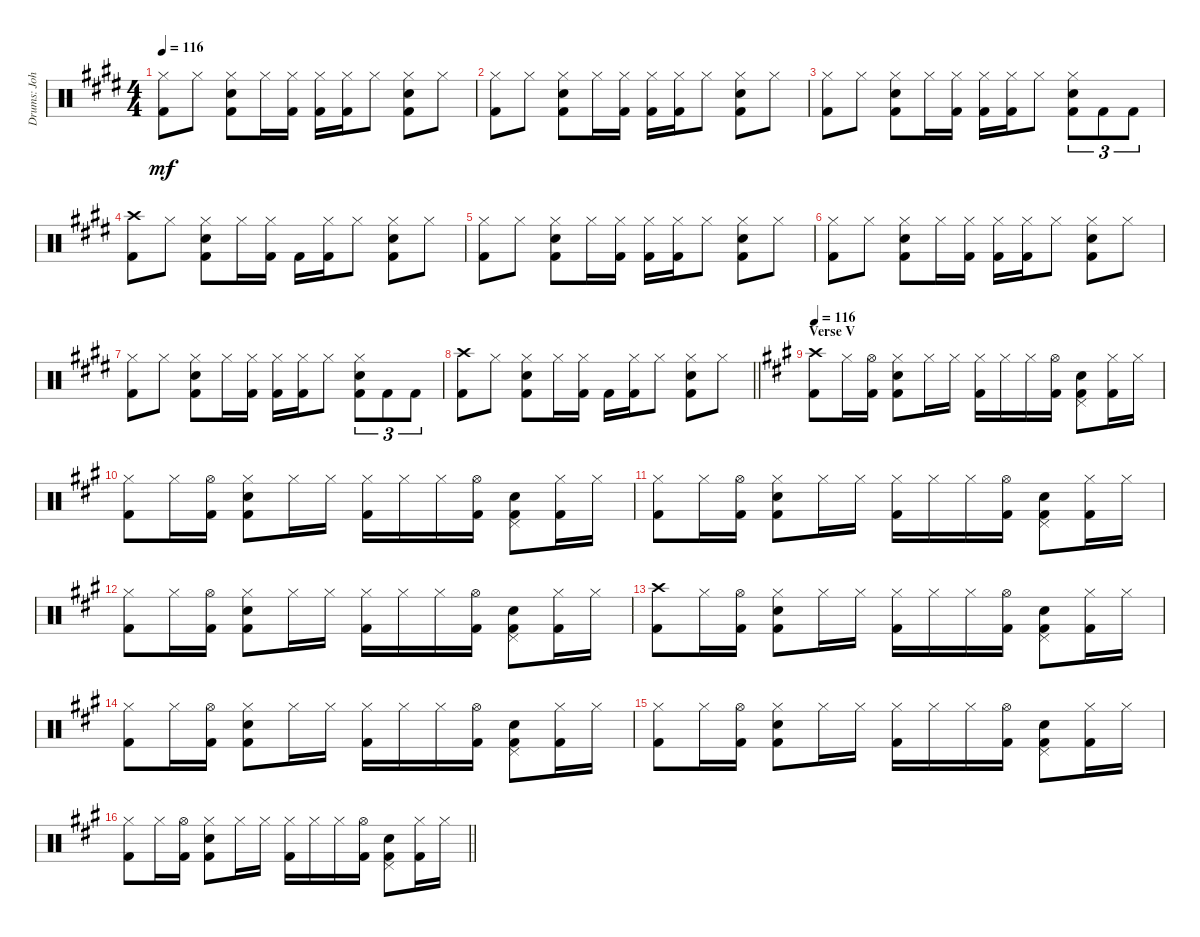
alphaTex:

\track ("Drums: John" "Drums: Joh") {instrument percussion}
\staff {score}
\articulation defaults
\ts (4 4)
\tempo 116
\clef neutral
\ks e
("Hi-Hat (closed)" "Kick (hit) 2").8{dy mf} "Hi-Hat (closed)".8 ("Hi-Hat (closed)" "Electric Snare (hit)" "Kick (hit) 2").8 "Hi-Hat (closed)".16 ("Hi-Hat (closed)" "Kick (hit) 2").16 ("Hi-Hat (closed)" "Kick (hit) 2").16 ("Hi-Hat (closed)" "Kick (hit) 2").16 "Hi-Hat (closed)".8 ("Hi-Hat (closed)" "Electric Snare (hit)" "Kick (hit) 2").8 "Hi-Hat (closed)".8 |
("Hi-Hat (closed)" "Kick (hit) 2").8 "Hi-Hat (closed)".8 ("Hi-Hat (closed)" "Electric Snare (hit)" "Kick (hit) 2").8 "Hi-Hat (closed)".16 ("Hi-Hat (closed)" "Kick (hit) 2").16 ("Hi-Hat (closed)" "Kick (hit) 2").16 ("Hi-Hat (closed)" "Kick (hit) 2").16 "Hi-Hat (closed)".8 ("Hi-Hat (closed)" "Electric Snare (hit)" "Kick (hit) 2").8 "Hi-Hat (closed)".8 |
("Hi-Hat (closed)" "Kick (hit) 2").8 "Hi-Hat (closed)".8 ("Hi-Hat (closed)" "Electric Snare (hit)" "Kick (hit) 2").8 "Hi-Hat (closed)".16 ("Hi-Hat (closed)" "Kick (hit) 2").16 ("Hi-Hat (closed)" "Kick (hit) 2").16 ("Hi-Hat (closed)" "Kick (hit) 2").16 "Hi-Hat (closed)".8 ("Hi-Hat (closed)" "Electric Snare (hit)" "Kick (hit) 2").8{tu (3 2)} "Kick (hit) 2".8{tu (3 2)} "Kick (hit) 2".8{tu (3 2)} |
("Crash high (hit)" "Kick (hit) 2").8 "Hi-Hat (closed)".8 ("Hi-Hat (closed)" "Electric Snare (hit)" "Kick (hit) 2").8 "Hi-Hat (closed)".16 ("Hi-Hat (closed)" "Kick (hit) 2").16 "Kick (hit) 2".16 ("Hi-Hat (closed)" "Kick (hit) 2").16 "Hi-Hat (closed)".8 ("Hi-Hat (closed)" "Electric Snare (hit)" "Kick (hit) 2").8 "Hi-Hat (closed)".8 |
("Hi-Hat (closed)" "Kick (hit) 2").8 "Hi-Hat (closed)".8 ("Hi-Hat (closed)" "Electric Snare (hit)" "Kick (hit) 2").8 "Hi-Hat (closed)".16 ("Hi-Hat (closed)" "Kick (hit) 2").16 ("Hi-Hat (closed)" "Kick (hit) 2").16 ("Hi-Hat (closed)" "Kick (hit) 2").16 "Hi-Hat (closed)".8 ("Hi-Hat (closed)" "Electric Snare (hit)" "Kick (hit) 2").8 "Hi-Hat (closed)".8 |
("Hi-Hat (closed)" "Kick (hit) 2").8 "Hi-Hat (closed)".8 ("Hi-Hat (closed)" "Electric Snare (hit)" "Kick (hit) 2").8 "Hi-Hat (closed)".16 ("Hi-Hat (closed)" "Kick (hit) 2").16 ("Hi-Hat (closed)" "Kick (hit) 2").16 ("Hi-Hat (closed)" "Kick (hit) 2").16 "Hi-Hat (closed)".8 ("Hi-Hat (closed)" "Electric Snare (hit)" "Kick (hit) 2").8 "Hi-Hat (closed)".8 |
("Hi-Hat (closed)" "Kick (hit) 2").8 "Hi-Hat (closed)".8 ("Hi-Hat (closed)" "Electric Snare (hit)" "Kick (hit) 2").8 "Hi-Hat (closed)".16 ("Hi-Hat (closed)" "Kick (hit) 2").16 ("Hi-Hat (closed)" "Kick (hit) 2").16 ("Hi-Hat (closed)" "Kick (hit) 2").16 "Hi-Hat (closed)".8 ("Hi-Hat (closed)" "Electric Snare (hit)" "Kick (hit) 2").8{tu (3 2)} "Kick (hit) 2".8{tu (3 2)} "Kick (hit) 2".8{tu (3 2)} |
\barLineRight lightlight
("Crash high (hit)" "Kick (hit) 2").8 "Hi-Hat (closed)".8 ("Hi-Hat (closed)" "Electric Snare (hit)" "Kick (hit) 2").8 "Hi-Hat (closed)".16 ("Hi-Hat (closed)" "Kick (hit) 2").16 "Kick (hit) 2".16 ("Hi-Hat (closed)" "Kick (hit) 2").16 "Hi-Hat (closed)".8 ("Hi-Hat (closed)" "Electric Snare (hit)" "Kick (hit) 2").8 "Hi-Hat (closed)".8 |
\section ("" "Verse V")
\tempo 116
\ks a
("Crash high (hit)" "Kick (hit) 2").8 "Hi-Hat (closed)".16 ("Hi-Hat (open)" "Kick (hit) 2").16 ("Hi-Hat (closed)" "Electric Snare (hit)" "Kick (hit) 2").8 "Hi-Hat (closed)".16 "Hi-Hat (closed)".16 ("Hi-Hat (closed)" "Kick (hit) 2").16 "Hi-Hat (closed)".16 "Hi-Hat (closed)".16 ("Hi-Hat (open)" "Kick (hit) 2").16 ("Pedal Hi-Hat (hit)" "Electric Snare (hit)" "Kick (hit) 2").8 ("Hi-Hat (closed)" "Kick (hit) 2").16 "Hi-Hat (closed)".16 |
("Hi-Hat (closed)" "Kick (hit) 2").8 "Hi-Hat (closed)".16 ("Hi-Hat (open)" "Kick (hit) 2").16 ("Hi-Hat (closed)" "Electric Snare (hit)" "Kick (hit) 2").8 "Hi-Hat (closed)".16 "Hi-Hat (closed)".16 ("Hi-Hat (closed)" "Kick (hit) 2").16 "Hi-Hat (closed)".16 "Hi-Hat (closed)".16 ("Hi-Hat (open)" "Kick (hit) 2").16 ("Pedal Hi-Hat (hit)" "Electric Snare (hit)" "Kick (hit) 2").8 ("Hi-Hat (closed)" "Kick (hit) 2").16 "Hi-Hat (closed)".16 |
("Hi-Hat (closed)" "Kick (hit) 2").8 "Hi-Hat (closed)".16 ("Hi-Hat (open)" "Kick (hit) 2").16 ("Hi-Hat (closed)" "Electric Snare (hit)" "Kick (hit) 2").8 "Hi-Hat (closed)".16 "Hi-Hat (closed)".16 ("Hi-Hat (closed)" "Kick (hit) 2").16 "Hi-Hat (closed)".16 "Hi-Hat (closed)".16 ("Hi-Hat (open)" "Kick (hit) 2").16 ("Pedal Hi-Hat (hit)" "Electric Snare (hit)" "Kick (hit) 2").8 ("Hi-Hat (closed)" "Kick (hit) 2").16 "Hi-Hat (closed)".16 |
("Hi-Hat (closed)" "Kick (hit) 2").8 "Hi-Hat (closed)".16 ("Hi-Hat (open)" "Kick (hit) 2").16 ("Hi-Hat (closed)" "Electric Snare (hit)" "Kick (hit) 2").8 "Hi-Hat (closed)".16 "Hi-Hat (closed)".16 ("Hi-Hat (closed)" "Kick (hit) 2").16 "Hi-Hat (closed)".16 "Hi-Hat (closed)".16 ("Hi-Hat (open)" "Kick (hit) 2").16 ("Pedal Hi-Hat (hit)" "Electric Snare (hit)" "Kick (hit) 2").8 ("Hi-Hat (closed)" "Kick (hit) 2").16 "Hi-Hat (closed)".16 |
("Crash high (hit)" "Kick (hit) 2").8 "Hi-Hat (closed)".16 ("Hi-Hat (open)" "Kick (hit) 2").16 ("Hi-Hat (closed)" "Electric Snare (hit)" "Kick (hit) 2").8 "Hi-Hat (closed)".16 "Hi-Hat (closed)".16 ("Hi-Hat (closed)" "Kick (hit) 2").16 "Hi-Hat (closed)".16 "Hi-Hat (closed)".16 ("Hi-Hat (open)" "Kick (hit) 2").16 ("Pedal Hi-Hat (hit)" "Electric Snare (hit)" "Kick (hit) 2").8 ("Hi-Hat (closed)" "Kick (hit) 2").16 "Hi-Hat (closed)".16 |
("Hi-Hat (closed)" "Kick (hit) 2").8 "Hi-Hat (closed)".16 ("Hi-Hat (open)" "Kick (hit) 2").16 ("Hi-Hat (closed)" "Electric Snare (hit)" "Kick (hit) 2").8 "Hi-Hat (closed)".16 "Hi-Hat (closed)".16 ("Hi-Hat (closed)" "Kick (hit) 2").16 "Hi-Hat (closed)".16 "Hi-Hat (closed)".16 ("Hi-Hat (open)" "Kick (hit) 2").16 ("Pedal Hi-Hat (hit)" "Electric Snare (hit)" "Kick (hit) 2").8 ("Hi-Hat (closed)" "Kick (hit) 2").16 "Hi-Hat (closed)".16 |
("Hi-Hat (closed)" "Kick (hit) 2").8 "Hi-Hat (closed)".16 ("Hi-Hat (open)" "Kick (hit) 2").16 ("Hi-Hat (closed)" "Electric Snare (hit)" "Kick (hit) 2").8 "Hi-Hat (closed)".16 "Hi-Hat (closed)".16 ("Hi-Hat (closed)" "Kick (hit) 2").16 "Hi-Hat (closed)".16 "Hi-Hat (closed)".16 ("Hi-Hat (open)" "Kick (hit) 2").16 ("Pedal Hi-Hat (hit)" "Electric Snare (hit)" "Kick (hit) 2").8 ("Hi-Hat (closed)" "Kick (hit) 2").16 "Hi-Hat (closed)".16 |
\barLineRight lightlight
("Hi-Hat (closed)" "Kick (hit) 2").8 "Hi-Hat (closed)".16 ("Hi-Hat (open)" "Kick (hit) 2").16 ("Hi-Hat (closed)" "Electric Snare (hit)" "Kick (hit) 2").8 "Hi-Hat (closed)".16 "Hi-Hat (closed)".16 ("Hi-Hat (closed)" "Kick (hit) 2").16 "Hi-Hat (closed)".16 "Hi-Hat (closed)".16 ("Hi-Hat (open)" "Kick (hit) 2").16 ("Pedal Hi-Hat (hit)" "Electric Snare (hit)" "Kick (hit) 2").8 ("Hi-Hat (closed)" "Kick (hit) 2").16 "Hi-Hat (closed)".16
